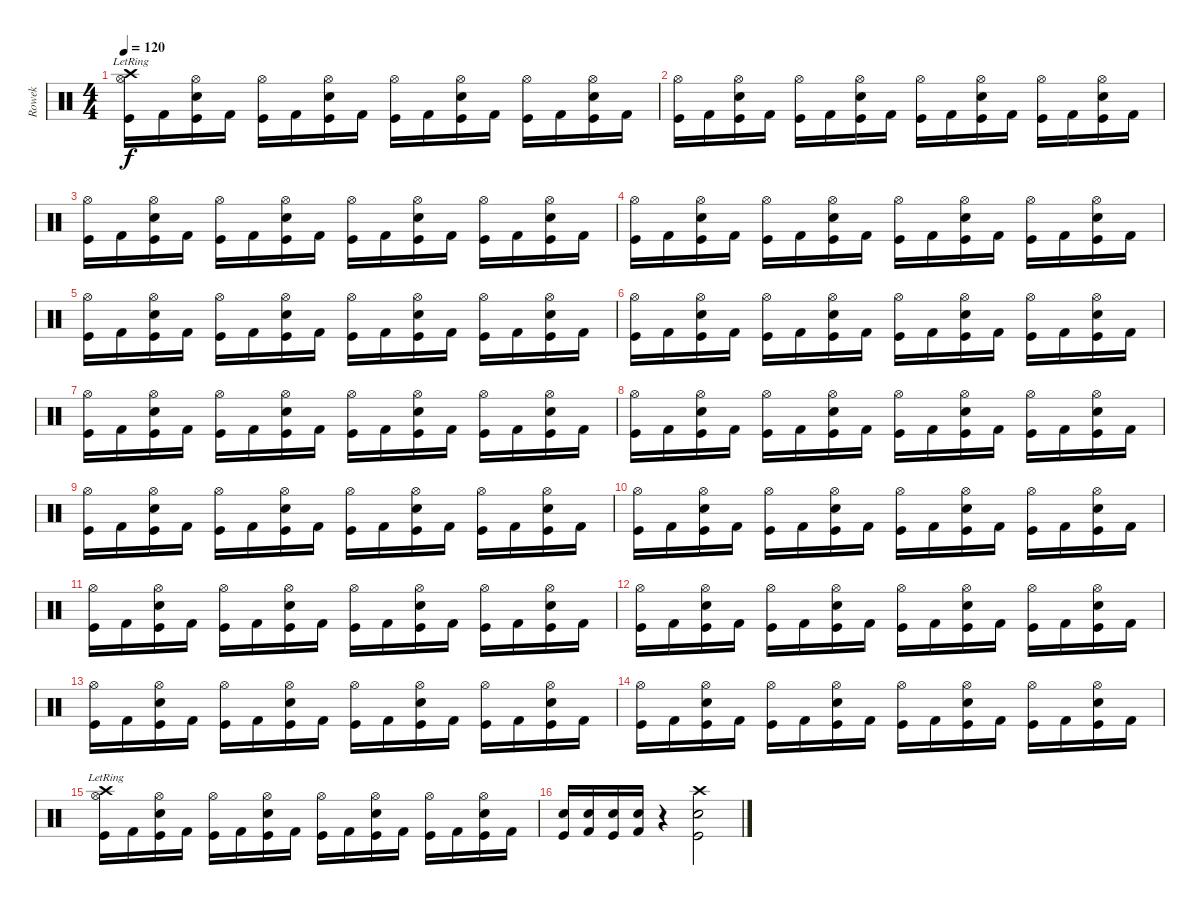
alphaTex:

\track ("Rowek" "Rowek") {instrument percussion}
\staff {score}
\articulation defaults
\ts (4 4)
\tempo 120
\clef neutral
\ks c
("Hi-Hat (open)" "Crash high (hit)"{lr} "Kick (hit)").16{dy f} "Kick (hit) 2".16 ("Hi-Hat (open)" "Snare (hit) 2" "Kick (hit)").16 "Kick (hit) 2".16 ("Hi-Hat (open)" "Kick (hit)").16 "Kick (hit) 2".16 ("Hi-Hat (open)" "Snare (hit) 2" "Kick (hit)").16 "Kick (hit) 2".16 ("Hi-Hat (open)" "Kick (hit)").16 "Kick (hit) 2".16 ("Hi-Hat (open)" "Snare (hit) 2" "Kick (hit)").16 "Kick (hit) 2".16 ("Hi-Hat (open)" "Kick (hit)").16 "Kick (hit) 2".16 ("Hi-Hat (open)" "Snare (hit) 2" "Kick (hit)").16 "Kick (hit) 2".16 |
("Hi-Hat (open)" "Kick (hit)").16 "Kick (hit) 2".16 ("Hi-Hat (open)" "Snare (hit) 2" "Kick (hit)").16 "Kick (hit) 2".16 ("Hi-Hat (open)" "Kick (hit)").16 "Kick (hit) 2".16 ("Hi-Hat (open)" "Snare (hit) 2" "Kick (hit)").16 "Kick (hit) 2".16 ("Hi-Hat (open)" "Kick (hit)").16 "Kick (hit) 2".16 ("Hi-Hat (open)" "Snare (hit) 2" "Kick (hit)").16 "Kick (hit) 2".16 ("Hi-Hat (open)" "Kick (hit)").16 "Kick (hit) 2".16 ("Hi-Hat (open)" "Snare (hit) 2" "Kick (hit)").16 "Kick (hit) 2".16 |
("Hi-Hat (open)" "Kick (hit)").16 "Kick (hit) 2".16 ("Hi-Hat (open)" "Snare (hit) 2" "Kick (hit)").16 "Kick (hit) 2".16 ("Hi-Hat (open)" "Kick (hit)").16 "Kick (hit) 2".16 ("Hi-Hat (open)" "Snare (hit) 2" "Kick (hit)").16 "Kick (hit) 2".16 ("Hi-Hat (open)" "Kick (hit)").16 "Kick (hit) 2".16 ("Hi-Hat (open)" "Snare (hit) 2" "Kick (hit)").16 "Kick (hit) 2".16 ("Hi-Hat (open)" "Kick (hit)").16 "Kick (hit) 2".16 ("Hi-Hat (open)" "Snare (hit) 2" "Kick (hit)").16 "Kick (hit) 2".16 |
("Hi-Hat (open)" "Kick (hit)").16 "Kick (hit) 2".16 ("Hi-Hat (open)" "Snare (hit) 2" "Kick (hit)").16 "Kick (hit) 2".16 ("Hi-Hat (open)" "Kick (hit)").16 "Kick (hit) 2".16 ("Hi-Hat (open)" "Snare (hit) 2" "Kick (hit)").16 "Kick (hit) 2".16 ("Hi-Hat (open)" "Kick (hit)").16 "Kick (hit) 2".16 ("Hi-Hat (open)" "Snare (hit) 2" "Kick (hit)").16 "Kick (hit) 2".16 ("Hi-Hat (open)" "Kick (hit)").16 "Kick (hit) 2".16 ("Hi-Hat (open)" "Snare (hit) 2" "Kick (hit)").16 "Kick (hit) 2".16 |
("Hi-Hat (open)" "Kick (hit)").16 "Kick (hit) 2".16 ("Hi-Hat (open)" "Snare (hit) 2" "Kick (hit)").16 "Kick (hit) 2".16 ("Hi-Hat (open)" "Kick (hit)").16 "Kick (hit) 2".16 ("Hi-Hat (open)" "Snare (hit) 2" "Kick (hit)").16 "Kick (hit) 2".16 ("Hi-Hat (open)" "Kick (hit)").16 "Kick (hit) 2".16 ("Hi-Hat (open)" "Snare (hit) 2" "Kick (hit)").16 "Kick (hit) 2".16 ("Hi-Hat (open)" "Kick (hit)").16 "Kick (hit) 2".16 ("Hi-Hat (open)" "Snare (hit) 2" "Kick (hit)").16 "Kick (hit) 2".16 |
("Hi-Hat (open)" "Kick (hit)").16 "Kick (hit) 2".16 ("Hi-Hat (open)" "Snare (hit) 2" "Kick (hit)").16 "Kick (hit) 2".16 ("Hi-Hat (open)" "Kick (hit)").16 "Kick (hit) 2".16 ("Hi-Hat (open)" "Snare (hit) 2" "Kick (hit)").16 "Kick (hit) 2".16 ("Hi-Hat (open)" "Kick (hit)").16 "Kick (hit) 2".16 ("Hi-Hat (open)" "Snare (hit) 2" "Kick (hit)").16 "Kick (hit) 2".16 ("Hi-Hat (open)" "Kick (hit)").16 "Kick (hit) 2".16 ("Hi-Hat (open)" "Snare (hit) 2" "Kick (hit)").16 "Kick (hit) 2".16 |
("Hi-Hat (open)" "Kick (hit)").16 "Kick (hit) 2".16 ("Hi-Hat (open)" "Snare (hit) 2" "Kick (hit)").16 "Kick (hit) 2".16 ("Hi-Hat (open)" "Kick (hit)").16 "Kick (hit) 2".16 ("Hi-Hat (open)" "Snare (hit) 2" "Kick (hit)").16 "Kick (hit) 2".16 ("Hi-Hat (open)" "Kick (hit)").16 "Kick (hit) 2".16 ("Hi-Hat (open)" "Snare (hit) 2" "Kick (hit)").16 "Kick (hit) 2".16 ("Hi-Hat (open)" "Kick (hit)").16 "Kick (hit) 2".16 ("Hi-Hat (open)" "Snare (hit) 2" "Kick (hit)").16 "Kick (hit) 2".16 |
("Hi-Hat (open)" "Kick (hit)").16 "Kick (hit) 2".16 ("Hi-Hat (open)" "Snare (hit) 2" "Kick (hit)").16 "Kick (hit) 2".16 ("Hi-Hat (open)" "Kick (hit)").16 "Kick (hit) 2".16 ("Hi-Hat (open)" "Snare (hit) 2" "Kick (hit)").16 "Kick (hit) 2".16 ("Hi-Hat (open)" "Kick (hit)").16 "Kick (hit) 2".16 ("Hi-Hat (open)" "Snare (hit) 2" "Kick (hit)").16 "Kick (hit) 2".16 ("Hi-Hat (open)" "Kick (hit)").16 "Kick (hit) 2".16 ("Hi-Hat (open)" "Snare (hit) 2" "Kick (hit)").16 "Kick (hit) 2".16 |
("Hi-Hat (open)" "Kick (hit)").16 "Kick (hit) 2".16 ("Hi-Hat (open)" "Snare (hit) 2" "Kick (hit)").16 "Kick (hit) 2".16 ("Hi-Hat (open)" "Kick (hit)").16 "Kick (hit) 2".16 ("Hi-Hat (open)" "Snare (hit) 2" "Kick (hit)").16 "Kick (hit) 2".16 ("Hi-Hat (open)" "Kick (hit)").16 "Kick (hit) 2".16 ("Hi-Hat (open)" "Snare (hit) 2" "Kick (hit)").16 "Kick (hit) 2".16 ("Hi-Hat (open)" "Kick (hit)").16 "Kick (hit) 2".16 ("Hi-Hat (open)" "Snare (hit) 2" "Kick (hit)").16 "Kick (hit) 2".16 |
("Hi-Hat (open)" "Kick (hit)").16 "Kick (hit) 2".16 ("Hi-Hat (open)" "Snare (hit) 2" "Kick (hit)").16 "Kick (hit) 2".16 ("Hi-Hat (open)" "Kick (hit)").16 "Kick (hit) 2".16 ("Hi-Hat (open)" "Snare (hit) 2" "Kick (hit)").16 "Kick (hit) 2".16 ("Hi-Hat (open)" "Kick (hit)").16 "Kick (hit) 2".16 ("Hi-Hat (open)" "Snare (hit) 2" "Kick (hit)").16 "Kick (hit) 2".16 ("Hi-Hat (open)" "Kick (hit)").16 "Kick (hit) 2".16 ("Hi-Hat (open)" "Snare (hit) 2" "Kick (hit)").16 "Kick (hit) 2".16 |
("Hi-Hat (open)" "Kick (hit)").16 "Kick (hit) 2".16 ("Hi-Hat (open)" "Snare (hit) 2" "Kick (hit)").16 "Kick (hit) 2".16 ("Hi-Hat (open)" "Kick (hit)").16 "Kick (hit) 2".16 ("Hi-Hat (open)" "Snare (hit) 2" "Kick (hit)").16 "Kick (hit) 2".16 ("Hi-Hat (open)" "Kick (hit)").16 "Kick (hit) 2".16 ("Hi-Hat (open)" "Snare (hit) 2" "Kick (hit)").16 "Kick (hit) 2".16 ("Hi-Hat (open)" "Kick (hit)").16 "Kick (hit) 2".16 ("Hi-Hat (open)" "Snare (hit) 2" "Kick (hit)").16 "Kick (hit) 2".16 |
("Hi-Hat (open)" "Kick (hit)").16 "Kick (hit) 2".16 ("Hi-Hat (open)" "Snare (hit) 2" "Kick (hit)").16 "Kick (hit) 2".16 ("Hi-Hat (open)" "Kick (hit)").16 "Kick (hit) 2".16 ("Hi-Hat (open)" "Snare (hit) 2" "Kick (hit)").16 "Kick (hit) 2".16 ("Hi-Hat (open)" "Kick (hit)").16 "Kick (hit) 2".16 ("Hi-Hat (open)" "Snare (hit) 2" "Kick (hit)").16 "Kick (hit) 2".16 ("Hi-Hat (open)" "Kick (hit)").16 "Kick (hit) 2".16 ("Hi-Hat (open)" "Snare (hit) 2" "Kick (hit)").16 "Kick (hit) 2".16 |
("Hi-Hat (open)" "Kick (hit)").16 "Kick (hit) 2".16 ("Hi-Hat (open)" "Snare (hit) 2" "Kick (hit)").16 "Kick (hit) 2".16 ("Hi-Hat (open)" "Kick (hit)").16 "Kick (hit) 2".16 ("Hi-Hat (open)" "Snare (hit) 2" "Kick (hit)").16 "Kick (hit) 2".16 ("Hi-Hat (open)" "Kick (hit)").16 "Kick (hit) 2".16 ("Hi-Hat (open)" "Snare (hit) 2" "Kick (hit)").16 "Kick (hit) 2".16 ("Hi-Hat (open)" "Kick (hit)").16 "Kick (hit) 2".16 ("Hi-Hat (open)" "Snare (hit) 2" "Kick (hit)").16 "Kick (hit) 2".16 |
("Hi-Hat (open)" "Kick (hit)").16 "Kick (hit) 2".16 ("Hi-Hat (open)" "Snare (hit) 2" "Kick (hit)").16 "Kick (hit) 2".16 ("Hi-Hat (open)" "Kick (hit)").16 "Kick (hit) 2".16 ("Hi-Hat (open)" "Snare (hit) 2" "Kick (hit)").16 "Kick (hit) 2".16 ("Hi-Hat (open)" "Kick (hit)").16 "Kick (hit) 2".16 ("Hi-Hat (open)" "Snare (hit) 2" "Kick (hit)").16 "Kick (hit) 2".16 ("Hi-Hat (open)" "Kick (hit)").16 "Kick (hit) 2".16 ("Hi-Hat (open)" "Snare (hit) 2" "Kick (hit)").16 "Kick (hit) 2".16 |
("Hi-Hat (open)" "Crash high (hit)"{lr} "Kick (hit)").16 "Kick (hit) 2".16 ("Hi-Hat (open)" "Snare (hit) 2" "Kick (hit)").16 "Kick (hit) 2".16 ("Hi-Hat (open)" "Kick (hit)").16 "Kick (hit) 2".16 ("Hi-Hat (open)" "Snare (hit) 2" "Kick (hit)").16 "Kick (hit) 2".16 ("Hi-Hat (open)" "Kick (hit)").16 "Kick (hit) 2".16 ("Hi-Hat (open)" "Snare (hit) 2" "Kick (hit)").16 "Kick (hit) 2".16 ("Hi-Hat (open)" "Kick (hit)").16 "Kick (hit) 2".16 ("Hi-Hat (open)" "Snare (hit) 2" "Kick (hit)").16 "Kick (hit) 2".16 |
("Snare (hit) 2" "Kick (hit)").16 ("Snare (hit) 2" "Kick (hit) 2").16 ("Snare (hit) 2" "Kick (hit)").16 ("Snare (hit) 2" "Kick (hit) 2").16 r.4 ("Crash high (hit)" "Snare (hit) 2" "Kick (hit)").2
